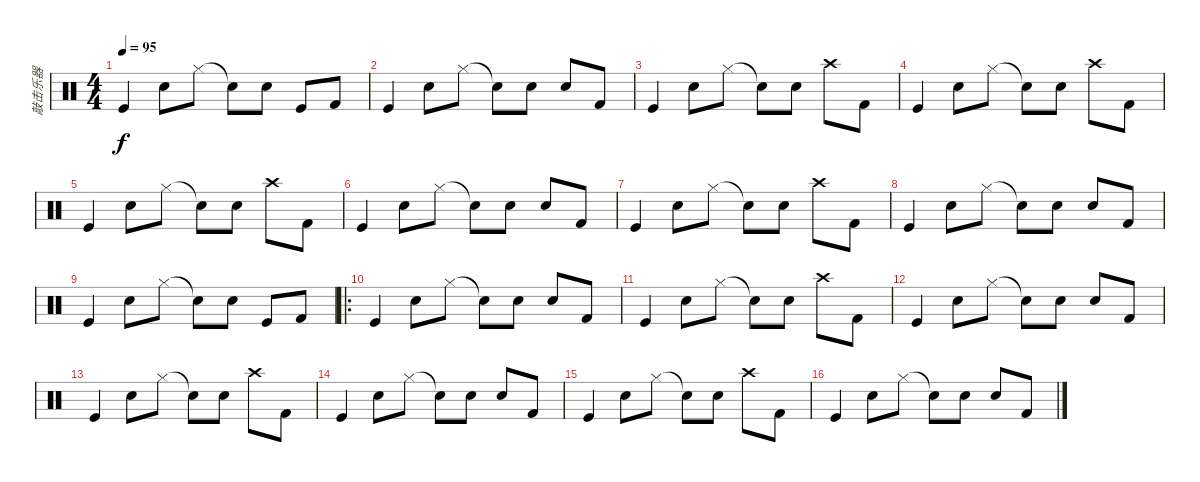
\track ("敲击乐器" "敲击乐器") {instrument percussion}
\staff {score}
\articulation defaults
\ts (4 4)
\tempo 95
\clef neutral
\ks c "Kick (hit)".4{dy f} "Hand Clap (hit)".8 "Hi-Hat (closed)".8 "Snare (hit)"{t}.8 "Hand Clap (hit)".8 "Kick (hit)".8 "Kick (hit) 2".8
|
"Kick (hit)".4 "Hand Clap (hit)".8 "Hi-Hat (closed)".8 "Snare (hit)"{t}.8 "Hand Clap (hit)".8 "Snare (hit) 2".8 "Kick (hit) 2".8 |
"Kick (hit)".4 "Hand Clap (hit)".8 "Hi-Hat (closed)".8 "Snare (hit)"{t}.8 "Hand Clap (hit)".8 "Crash high (hit)".8 "Kick (hit) 2".8 |
"Kick (hit)".4 "Hand Clap (hit)".8 "Hi-Hat (closed)".8 "Snare (hit)"{t}.8 "Hand Clap (hit)".8 "Crash high (hit)".8 "Kick (hit) 2".8 |
"Kick (hit)".4 "Hand Clap (hit)".8 "Hi-Hat (closed)".8 "Snare (hit)"{t}.8 "Hand Clap (hit)".8 "Crash high (hit)".8 "Kick (hit) 2".8 |
"Kick (hit)".4 "Hand Clap (hit)".8 "Hi-Hat (closed)".8 "Snare (hit)"{t}.8 "Hand Clap (hit)".8 "Snare (hit) 2".8 "Kick (hit) 2".8 |
"Kick (hit)".4 "Hand Clap (hit)".8 "Hi-Hat (closed)".8 "Snare (hit)"{t}.8 "Hand Clap (hit)".8 "Crash high (hit)".8 "Kick (hit) 2".8 |
"Kick (hit)".4 "Hand Clap (hit)".8 "Hi-Hat (closed)".8 "Snare (hit)"{t}.8 "Hand Clap (hit)".8 "Snare (hit) 2".8 "Kick (hit) 2".8 |
"Kick (hit)".4 "Hand Clap (hit)".8 "Hi-Hat (closed)".8 "Snare (hit)"{t}.8 "Hand Clap (hit)".8 "Kick (hit)".8 "Kick (hit) 2".8 |
\ro "Kick (hit)".4 "Hand Clap (hit)".8 "Hi-Hat (closed)".8 "Snare (hit)"{t}.8 "Hand Clap (hit)".8 "Snare (hit) 2".8 "Kick (hit) 2".8
|
"Kick (hit)".4 "Hand Clap (hit)".8 "Hi-Hat (closed)".8 "Snare (hit)"{t}.8 "Hand Clap (hit)".8 "Crash high (hit)".8 "Kick (hit) 2".8 |
"Kick (hit)".4 "Hand Clap (hit)".8 "Hi-Hat (closed)".8 "Snare (hit)"{t}.8 "Hand Clap (hit)".8 "Snare (hit) 2".8 "Kick (hit) 2".8 |
"Kick (hit)".4 "Hand Clap (hit)".8 "Hi-Hat (closed)".8 "Snare (hit)"{t}.8 "Hand Clap (hit)".8 "Crash high (hit)".8 "Kick (hit) 2".8 |
"Kick (hit)".4 "Hand Clap (hit)".8 "Hi-Hat (closed)".8 "Snare (hit)"{t}.8 "Hand Clap (hit)".8 "Snare (hit) 2".8 "Kick (hit) 2".8 |
"Kick (hit)".4 "Hand Clap (hit)".8 "Hi-Hat (closed)".8 "Snare (hit)"{t}.8 "Hand Clap (hit)".8 "Crash high (hit)".8 "Kick (hit) 2".8 |
"Kick (hit)".4 "Hand Clap (hit)".8 "Hi-Hat (closed)".8 "Snare (hit)"{t}.8 "Hand Clap (hit)".8 "Snare (hit) 2".8 "Kick (hit) 2".8
